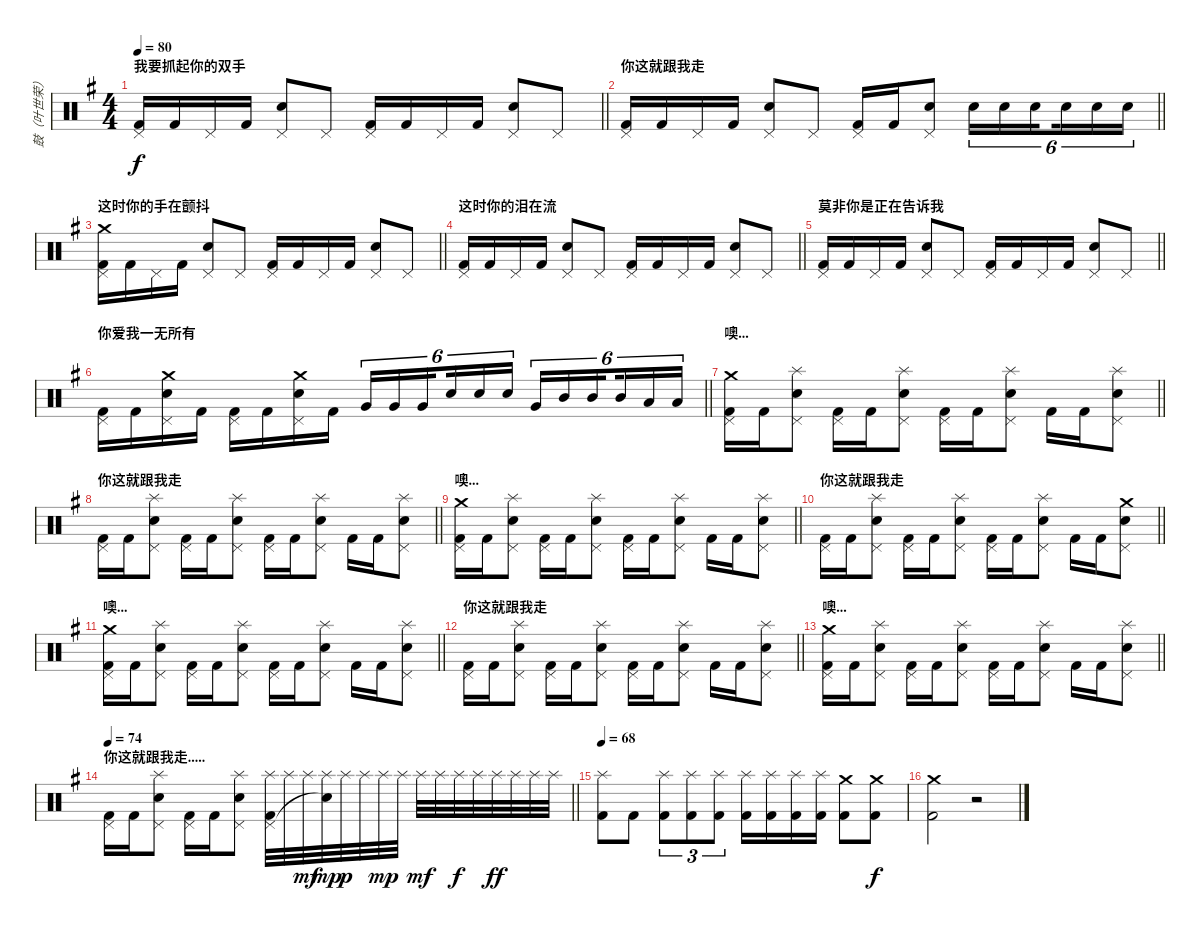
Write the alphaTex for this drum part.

\track ("鼓（叶世荣）" "鼓（叶世荣）") {instrument percussion}
\staff {score}
\articulation defaults
\ts (4 4)
\section ("" "我要抓起你的双手")
\tempo 80
\clef neutral
\barLineRight lightlight
\ks g
("Pedal Hi-Hat (hit)" "Kick (hit) 2").16{dy f} "Kick (hit) 2".16 "Pedal Hi-Hat (hit)".16 "Kick (hit) 2".16 ("Pedal Hi-Hat (hit)" "Snare (hit) 2").8 "Pedal Hi-Hat (hit)".8 ("Pedal Hi-Hat (hit)" "Kick (hit) 2").16 "Kick (hit) 2".16 "Pedal Hi-Hat (hit)".16 "Kick (hit) 2".16 ("Pedal Hi-Hat (hit)" "Snare (hit) 2").8 "Pedal Hi-Hat (hit)".8 |
\section ("" "你这就跟我走")
\barLineRight lightlight
("Pedal Hi-Hat (hit)" "Kick (hit) 2").16 "Kick (hit) 2".16 "Pedal Hi-Hat (hit)".16 "Kick (hit) 2".16 ("Pedal Hi-Hat (hit)" "Snare (hit) 2").8 "Pedal Hi-Hat (hit)".8 ("Pedal Hi-Hat (hit)" "Kick (hit) 2").16 "Kick (hit) 2".16 ("Pedal Hi-Hat (hit)" "Snare (hit) 2").8 "Snare (hit) 2".16{tu (6 4)} "Electric Snare (hit)".16{tu (6 4)} "Snare (hit) 2".16{tu (6 4) beam splitsecondary} "Snare (hit) 2".16{tu (6 4)} "Electric Snare (hit)".16{tu (6 4)} "Snare (hit) 2".16{tu (6 4)} |
\section ("" "这时你的手在颤抖")
\barLineRight lightlight
("Crash medium (hit)" "Pedal Hi-Hat (hit)" "Kick (hit) 2").16 "Kick (hit) 2".16 "Pedal Hi-Hat (hit)".16 "Kick (hit) 2".16 ("Pedal Hi-Hat (hit)" "Snare (hit) 2").8 "Pedal Hi-Hat (hit)".8 ("Pedal Hi-Hat (hit)" "Kick (hit) 2").16 "Kick (hit) 2".16 "Pedal Hi-Hat (hit)".16 "Kick (hit) 2".16 ("Pedal Hi-Hat (hit)" "Snare (hit) 2").8 "Pedal Hi-Hat (hit)".8 |
\section ("" "这时你的泪在流")
\barLineRight lightlight
("Pedal Hi-Hat (hit)" "Kick (hit) 2").16 "Kick (hit) 2".16 "Pedal Hi-Hat (hit)".16 "Kick (hit) 2".16 ("Pedal Hi-Hat (hit)" "Snare (hit) 2").8 "Pedal Hi-Hat (hit)".8 ("Pedal Hi-Hat (hit)" "Kick (hit) 2").16 "Kick (hit) 2".16 "Pedal Hi-Hat (hit)".16 "Kick (hit) 2".16 ("Pedal Hi-Hat (hit)" "Snare (hit) 2").8 "Pedal Hi-Hat (hit)".8 |
\section ("" "莫非你是正在告诉我")
\barLineRight lightlight
("Pedal Hi-Hat (hit)" "Kick (hit) 2").16 "Kick (hit) 2".16 "Pedal Hi-Hat (hit)".16 "Kick (hit) 2".16 ("Pedal Hi-Hat (hit)" "Snare (hit) 2").8 "Pedal Hi-Hat (hit)".8 ("Pedal Hi-Hat (hit)" "Kick (hit) 2").16 "Kick (hit) 2".16 "Pedal Hi-Hat (hit)".16 "Kick (hit) 2".16 ("Pedal Hi-Hat (hit)" "Snare (hit) 2").8 "Pedal Hi-Hat (hit)".8 |
\section ("" "你爱我一无所有")
\barLineRight lightlight
("Pedal Hi-Hat (hit)" "Kick (hit) 2").16 "Kick (hit) 2".16 ("Crash medium (hit)" "Pedal Hi-Hat (hit)" "Snare (hit) 2").16 "Kick (hit) 2".16 ("Pedal Hi-Hat (hit)" "Kick (hit) 2").16 "Kick (hit) 2".16 ("Crash medium (hit)" "Pedal Hi-Hat (hit)" "Snare (hit) 2").16 "Kick (hit) 2".16 "Very Low Tom (hit)".16{tu (6 4)} "Very Low Tom (hit)".16{tu (6 4)} "Very Low Tom (hit)".16{tu (6 4) beam splitsecondary} "Electric Snare (hit)".16{tu (6 4)} "Electric Snare (hit)".16{tu (6 4)} "Electric Snare (hit)".16{tu (6 4)} "Very Low Tom (hit)".16{tu (6 4)} "Mid Tom (hit)".16{tu (6 4)} "Mid Tom (hit)".16{tu (6 4) beam splitsecondary} "Mid Tom (hit)".16{tu (6 4)} "Low Tom (hit)".16{tu (6 4)} "Low Tom (hit)".16{tu (6 4)} |
\section ("" "噢...")
\barLineRight lightlight
("Crash medium (hit)" "Pedal Hi-Hat (hit)" "Kick (hit) 2").16 "Kick (hit) 2".16 ("Splash (hit)" "Pedal Hi-Hat (hit)" "Snare (hit) 2").8 ("Pedal Hi-Hat (hit)" "Kick (hit) 2").16 "Kick (hit) 2".16 ("Splash (hit)" "Pedal Hi-Hat (hit)" "Snare (hit) 2").8 ("Pedal Hi-Hat (hit)" "Kick (hit) 2").16 "Kick (hit) 2".16 ("Splash (hit)" "Pedal Hi-Hat (hit)" "Snare (hit) 2").8 "Kick (hit) 2".16 "Kick (hit) 2".16 ("Splash (hit)" "Pedal Hi-Hat (hit)" "Snare (hit) 2").8 |
\section ("" "你这就跟我走")
\barLineRight lightlight
("Pedal Hi-Hat (hit)" "Kick (hit) 2").16 "Kick (hit) 2".16 ("Splash (hit)" "Pedal Hi-Hat (hit)" "Snare (hit) 2").8 ("Pedal Hi-Hat (hit)" "Kick (hit) 2").16 "Kick (hit) 2".16 ("Splash (hit)" "Pedal Hi-Hat (hit)" "Snare (hit) 2").8 ("Pedal Hi-Hat (hit)" "Kick (hit) 2").16 "Kick (hit) 2".16 ("Splash (hit)" "Pedal Hi-Hat (hit)" "Snare (hit) 2").8 "Kick (hit) 2".16 "Kick (hit) 2".16 ("Splash (hit)" "Pedal Hi-Hat (hit)" "Snare (hit) 2").8 |
\section ("" "噢...")
\barLineRight lightlight
("Crash medium (hit)" "Pedal Hi-Hat (hit)" "Kick (hit) 2").16 "Kick (hit) 2".16 ("Splash (hit)" "Pedal Hi-Hat (hit)" "Snare (hit) 2").8 ("Pedal Hi-Hat (hit)" "Kick (hit) 2").16 "Kick (hit) 2".16 ("Splash (hit)" "Pedal Hi-Hat (hit)" "Snare (hit) 2").8 ("Pedal Hi-Hat (hit)" "Kick (hit) 2").16 "Kick (hit) 2".16 ("Splash (hit)" "Pedal Hi-Hat (hit)" "Snare (hit) 2").8 "Kick (hit) 2".16 "Kick (hit) 2".16 ("Splash (hit)" "Pedal Hi-Hat (hit)" "Snare (hit) 2").8 |
\section ("" "你这就跟我走")
\barLineRight lightlight
("Pedal Hi-Hat (hit)" "Kick (hit) 2").16 "Kick (hit) 2".16 ("Splash (hit)" "Pedal Hi-Hat (hit)" "Snare (hit) 2").8 ("Pedal Hi-Hat (hit)" "Kick (hit) 2").16 "Kick (hit) 2".16 ("Splash (hit)" "Pedal Hi-Hat (hit)" "Snare (hit) 2").8 ("Pedal Hi-Hat (hit)" "Kick (hit) 2").16 "Kick (hit) 2".16 ("Splash (hit)" "Pedal Hi-Hat (hit)" "Snare (hit) 2").8 "Kick (hit) 2".16 "Kick (hit) 2".16 ("Crash medium (hit)" "Pedal Hi-Hat (hit)" "Snare (hit) 2").8 |
\section ("" "噢...")
\barLineRight lightlight
("Crash medium (hit)" "Pedal Hi-Hat (hit)" "Kick (hit) 2").16 "Kick (hit) 2".16 ("Splash (hit)" "Pedal Hi-Hat (hit)" "Snare (hit) 2").8 ("Pedal Hi-Hat (hit)" "Kick (hit) 2").16 "Kick (hit) 2".16 ("Splash (hit)" "Pedal Hi-Hat (hit)" "Snare (hit) 2").8 ("Pedal Hi-Hat (hit)" "Kick (hit) 2").16 "Kick (hit) 2".16 ("Splash (hit)" "Pedal Hi-Hat (hit)" "Snare (hit) 2").8 "Kick (hit) 2".16 "Kick (hit) 2".16 ("Splash (hit)" "Pedal Hi-Hat (hit)" "Snare (hit) 2").8 |
\section ("" "你这就跟我走")
\barLineRight lightlight
("Pedal Hi-Hat (hit)" "Kick (hit) 2").16 "Kick (hit) 2".16 ("Splash (hit)" "Pedal Hi-Hat (hit)" "Snare (hit) 2").8 ("Pedal Hi-Hat (hit)" "Kick (hit) 2").16 "Kick (hit) 2".16 ("Splash (hit)" "Pedal Hi-Hat (hit)" "Snare (hit) 2").8 ("Pedal Hi-Hat (hit)" "Kick (hit) 2").16 "Kick (hit) 2".16 ("Splash (hit)" "Pedal Hi-Hat (hit)" "Snare (hit) 2").8 "Kick (hit) 2".16 "Kick (hit) 2".16 ("Splash (hit)" "Pedal Hi-Hat (hit)" "Snare (hit) 2").8 |
\section ("" "噢...")
\barLineRight lightlight
("Crash medium (hit)" "Pedal Hi-Hat (hit)" "Kick (hit) 2").16 "Kick (hit) 2".16 ("Splash (hit)" "Pedal Hi-Hat (hit)" "Snare (hit) 2").8 ("Pedal Hi-Hat (hit)" "Kick (hit) 2").16 "Kick (hit) 2".16 ("Splash (hit)" "Pedal Hi-Hat (hit)" "Snare (hit) 2").8 ("Pedal Hi-Hat (hit)" "Kick (hit) 2").16 "Kick (hit) 2".16 ("Splash (hit)" "Pedal Hi-Hat (hit)" "Snare (hit) 2").8 "Kick (hit) 2".16 "Kick (hit) 2".16 ("Splash (hit)" "Pedal Hi-Hat (hit)" "Snare (hit) 2").8 |
\section ("" "你这就跟我走.....")
\tempo 74
\barLineRight lightlight
("Pedal Hi-Hat (hit)" "Kick (hit) 2").16 "Kick (hit) 2".16 ("Splash (hit)" "Pedal Hi-Hat (hit)" "Snare (hit) 2").8 ("Pedal Hi-Hat (hit)" "Kick (hit) 2").16 "Kick (hit) 2".16 ("Splash (hit)" "Pedal Hi-Hat (hit)" "Snare (hit) 2").8 ("Splash (hit)" "Pedal Hi-Hat (hit)" "Kick (hit) 2").32 "Splash (hit)".32 "Splash (hit)".32{dy mf} ("Splash (hit)" "Snare (hit)"{t}).32{dy mp} "Splash (hit)".32{dy p} "Splash (hit)".32 "Splash (hit)".32{dy mp} "Splash (hit)".32 "Splash (hit)".32{dy mf} "Splash (hit)".32 "Splash (hit)".32{dy f} "Splash (hit)".32 "Splash (hit)".32{dy ff} "Splash (hit)".32 "Splash (hit)".32 "Splash (hit)".32 |
\tempo 68
("Splash (hit)" "Kick (hit) 2").8 "Kick (hit) 2".8 ("Splash (hit)" "Kick (hit) 2").8{tu (3 2)} ("Splash (hit)" "Kick (hit) 2").8{tu (3 2)} ("Splash (hit)" "Kick (hit) 2").8{tu (3 2)} ("Splash (hit)" "Kick (hit) 2").16 ("Splash (hit)" "Kick (hit) 2").16 ("Splash (hit)" "Kick (hit) 2").16 ("Splash (hit)" "Kick (hit) 2").16 ("Crash medium (hit)" "Kick (hit) 2").8 ("Crash medium (hit)" "Kick (hit) 2").8{dy f} |
("Crash medium (hit)" "Kick (hit) 2").2 r.2
